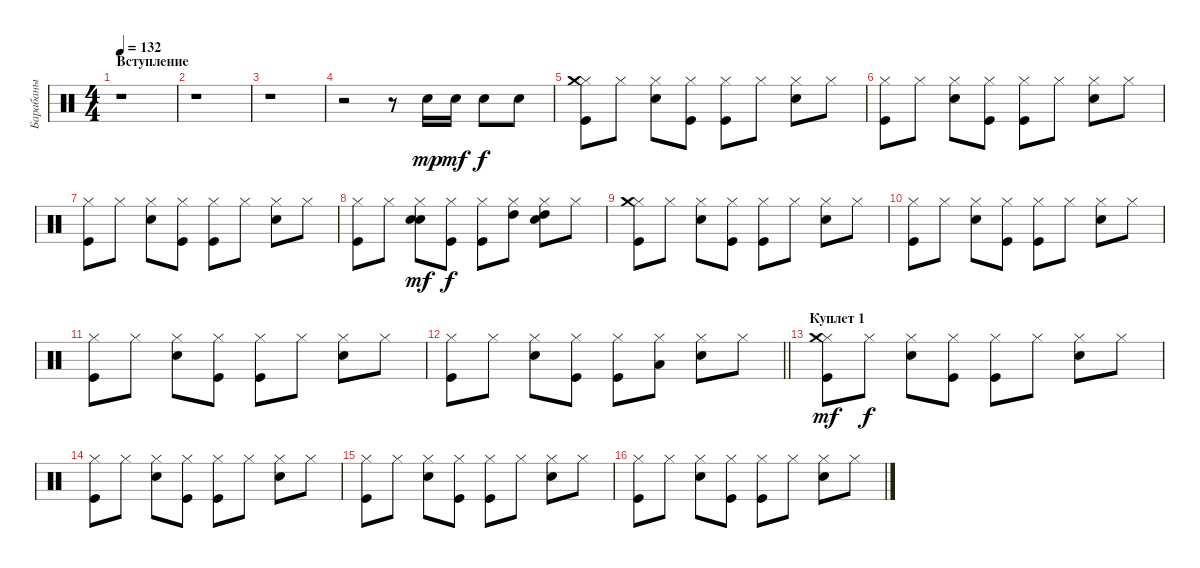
\track ("Барабаны" "Барабаны") {instrument percussion}
\staff {score}
\articulation defaults
\ts (4 4)
\section ("" "Вступление")
\tempo 132
\clef neutral
\ks c
r.1{dy mp} |
r.1 |
r.1 |
r.2 r.8 "Snare (hit) 2".16 "Snare (hit) 2".16{dy mf} "Snare (hit) 2".8{dy f} "Snare (hit) 2".8 |
("Kick (hit)" "Hi-Hat (closed)" "Crash medium (hit)").8 "Hi-Hat (closed)".8 ("Snare (hit) 2" "Hi-Hat (closed)").8 ("Kick (hit)" "Hi-Hat (closed)").8 ("Kick (hit)" "Hi-Hat (closed)").8 "Hi-Hat (closed)".8 ("Snare (hit) 2" "Hi-Hat (closed)").8 "Hi-Hat (closed)".8 |
("Kick (hit)" "Hi-Hat (closed)").8 "Hi-Hat (closed)".8 ("Snare (hit) 2" "Hi-Hat (closed)").8 ("Kick (hit)" "Hi-Hat (closed)").8 ("Kick (hit)" "Hi-Hat (closed)").8 "Hi-Hat (closed)".8 ("Snare (hit) 2" "Hi-Hat (closed)").8 "Hi-Hat (closed)".8 |
("Kick (hit)" "Hi-Hat (closed)").8 "Hi-Hat (closed)".8 ("Snare (hit) 2" "Hi-Hat (closed)").8 ("Kick (hit)" "Hi-Hat (closed)").8 ("Kick (hit)" "Hi-Hat (closed)").8 "Hi-Hat (closed)".8 ("Snare (hit) 2" "Hi-Hat (closed)").8 "Hi-Hat (closed)".8 |
("Kick (hit)" "Hi-Hat (closed)").8 "Hi-Hat (closed)".8 ("Snare (hit) 2" "Hi-Hat (closed)" "Hand Clap (hit)").8{dy mf} ("Kick (hit)" "Hi-Hat (closed)").8{dy f} ("Kick (hit)" "Hi-Hat (closed)").8 ("Hi-Hat (closed)" "High Tom (hit)").8 ("Snare (hit) 2" "Hi-Hat (closed)" "High Tom (hit)").8 "Hi-Hat (closed)".8 |
("Kick (hit)" "Hi-Hat (closed)" "Crash medium (hit)").8 "Hi-Hat (closed)".8 ("Snare (hit) 2" "Hi-Hat (closed)").8 ("Kick (hit)" "Hi-Hat (closed)").8 ("Kick (hit)" "Hi-Hat (closed)").8 "Hi-Hat (closed)".8 ("Snare (hit) 2" "Hi-Hat (closed)").8 "Hi-Hat (closed)".8 |
("Kick (hit)" "Hi-Hat (closed)").8 "Hi-Hat (closed)".8 ("Snare (hit) 2" "Hi-Hat (closed)").8 ("Kick (hit)" "Hi-Hat (closed)").8 ("Kick (hit)" "Hi-Hat (closed)").8 "Hi-Hat (closed)".8 ("Snare (hit) 2" "Hi-Hat (closed)").8 "Hi-Hat (closed)".8 |
("Kick (hit)" "Hi-Hat (closed)").8 "Hi-Hat (closed)".8 ("Snare (hit) 2" "Hi-Hat (closed)").8 ("Kick (hit)" "Hi-Hat (closed)").8 ("Kick (hit)" "Hi-Hat (closed)").8 "Hi-Hat (closed)".8 ("Snare (hit) 2" "Hi-Hat (closed)").8 "Hi-Hat (closed)".8 |
\barLineRight lightlight
("Kick (hit)" "Hi-Hat (closed)").8 "Hi-Hat (closed)".8 ("Snare (hit) 2" "Hi-Hat (closed)").8 ("Kick (hit)" "Hi-Hat (closed)").8 ("Kick (hit)" "Hi-Hat (closed)").8 ("Hi-Hat (closed)" "Low Floor Tom (hit)").8 ("Snare (hit) 2" "Hi-Hat (closed)").8 "Hi-Hat (closed)".8 |
\section ("" "Куплет 1")
("Kick (hit)" "Hi-Hat (closed)" "Crash medium (hit)").8{dy mf} "Hi-Hat (closed)".8{dy f} ("Snare (hit) 2" "Hi-Hat (closed)").8 ("Kick (hit)" "Hi-Hat (closed)").8 ("Kick (hit)" "Hi-Hat (closed)").8 "Hi-Hat (closed)".8 ("Snare (hit) 2" "Hi-Hat (closed)").8 "Hi-Hat (closed)".8 |
("Kick (hit)" "Hi-Hat (closed)").8 "Hi-Hat (closed)".8 ("Snare (hit) 2" "Hi-Hat (closed)").8 ("Kick (hit)" "Hi-Hat (closed)").8 ("Kick (hit)" "Hi-Hat (closed)").8 "Hi-Hat (closed)".8 ("Snare (hit) 2" "Hi-Hat (closed)").8 "Hi-Hat (closed)".8 |
("Kick (hit)" "Hi-Hat (closed)").8 "Hi-Hat (closed)".8 ("Snare (hit) 2" "Hi-Hat (closed)").8 ("Kick (hit)" "Hi-Hat (closed)").8 ("Kick (hit)" "Hi-Hat (closed)").8 "Hi-Hat (closed)".8 ("Snare (hit) 2" "Hi-Hat (closed)").8 "Hi-Hat (closed)".8 |
("Kick (hit)" "Hi-Hat (closed)").8 "Hi-Hat (closed)".8 ("Snare (hit) 2" "Hi-Hat (closed)").8 ("Kick (hit)" "Hi-Hat (closed)").8 ("Kick (hit)" "Hi-Hat (closed)").8 "Hi-Hat (closed)".8 ("Snare (hit) 2" "Hi-Hat (closed)").8 "Hi-Hat (closed)".8
